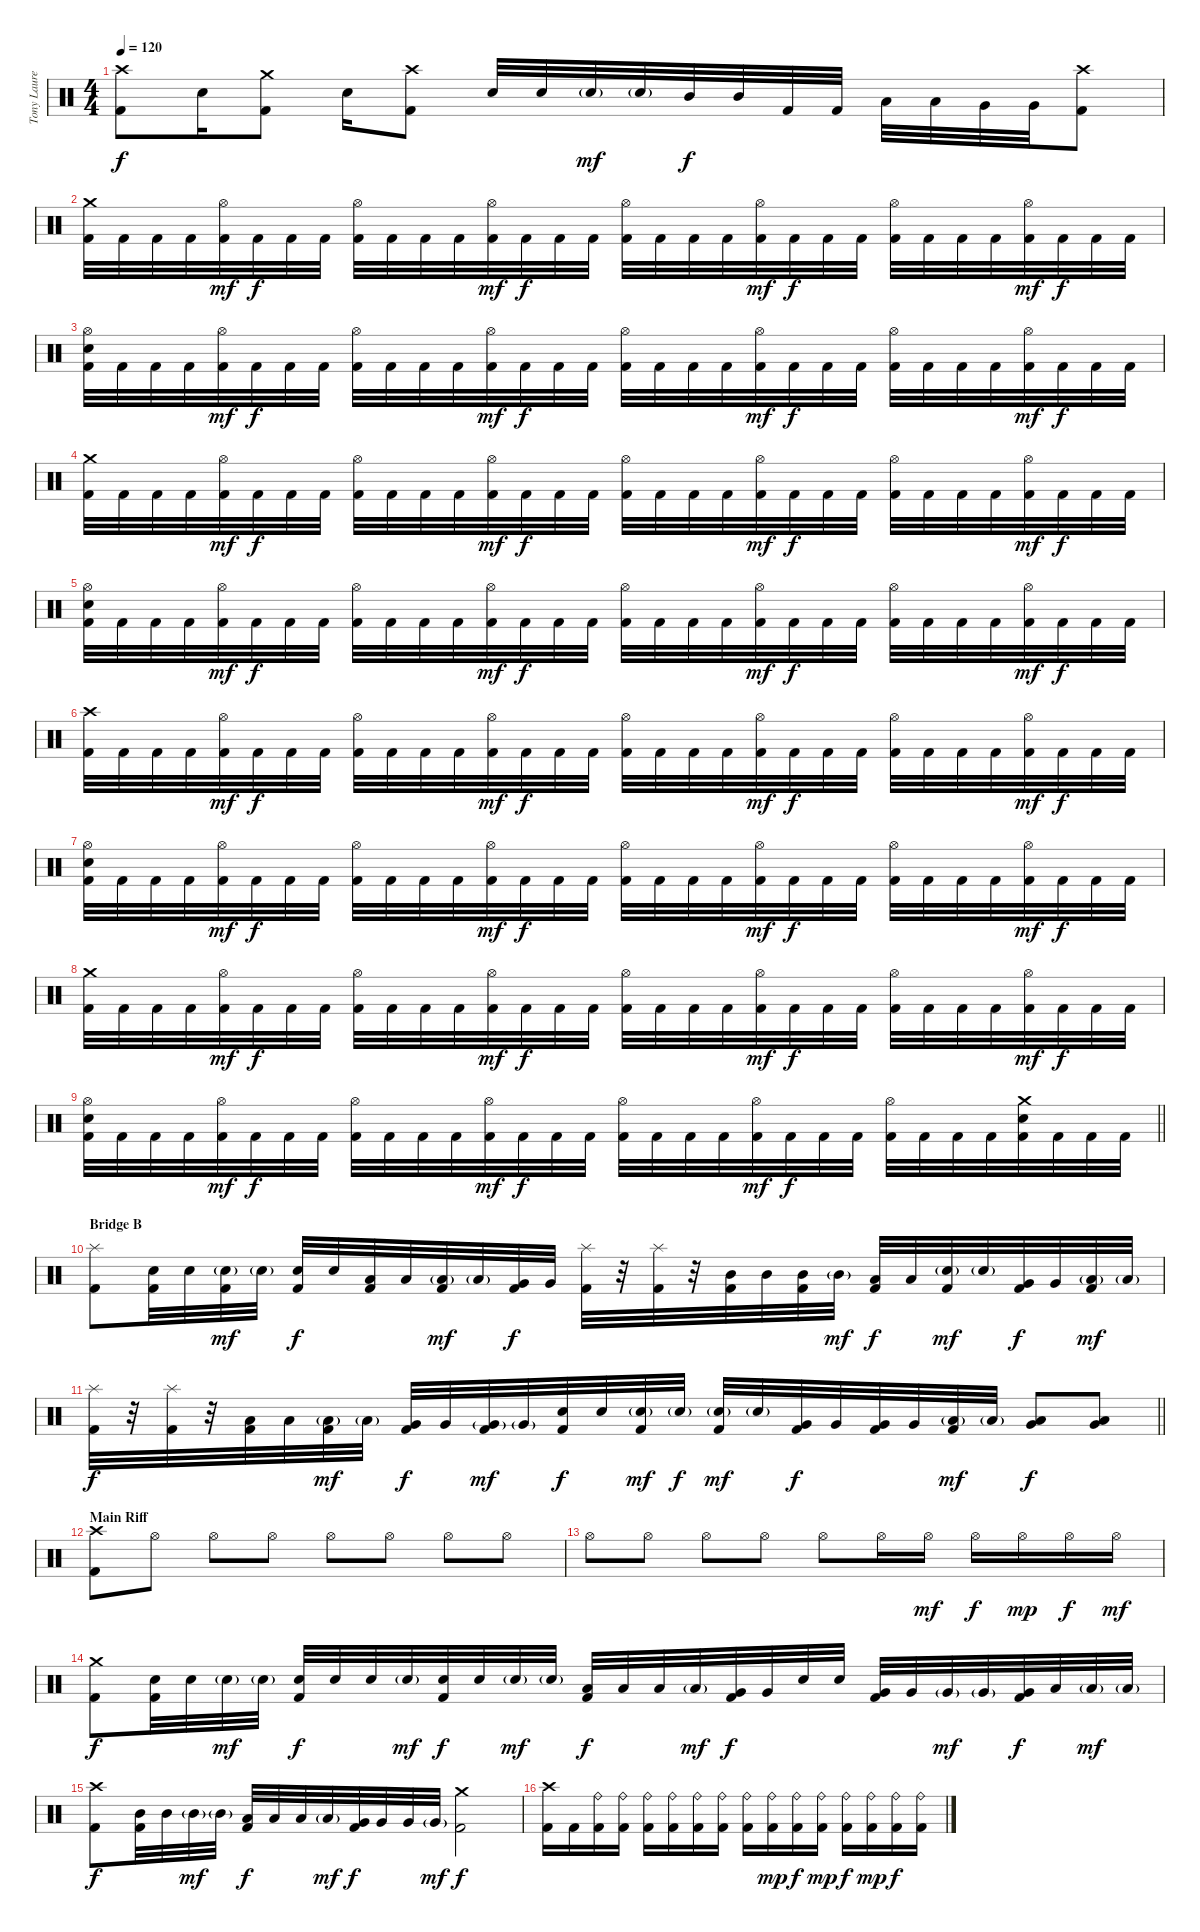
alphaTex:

\track ("Tony Laureano" "Tony Laure") {instrument percussion}
\staff {score}
\articulation defaults
\ts (4 4)
\tempo 120
\clef neutral
\ks c
("Crash high (hit)" "Kick (hit) 2").8{dy f} "Electric Snare (hit)".16 ("Crash medium (hit)" "Kick (hit) 2").8 "Electric Snare (hit)".16 ("Crash high (hit)" "Kick (hit) 2").8 "Electric Snare (hit)".32 "Electric Snare (hit)".32 "Electric Snare (hit)"{g}.32{dy mf} "Electric Snare (hit)"{g}.32 "Mid Tom (hit)".32{dy f} "Mid Tom (hit)".32 "Kick (hit) 2".32 "Kick (hit) 2".32 "Low Tom (hit)".32 "Low Tom (hit)".32 "Very Low Tom (hit)".32 "Very Low Tom (hit)".32 ("Crash high (hit)" "Kick (hit) 2").8 |
("Crash medium (hit)" "Kick (hit) 2").32 "Kick (hit) 2".32 "Kick (hit) 2".32 "Kick (hit) 2".32 ("Hi-Hat (open)" "Kick (hit) 2").32{dy mf} "Kick (hit) 2".32{dy f} "Kick (hit) 2".32 "Kick (hit) 2".32 ("Hi-Hat (open)" "Kick (hit) 2").32 "Kick (hit) 2".32 "Kick (hit) 2".32 "Kick (hit) 2".32 ("Hi-Hat (open)" "Kick (hit) 2").32{dy mf} "Kick (hit) 2".32{dy f} "Kick (hit) 2".32 "Kick (hit) 2".32 ("Hi-Hat (open)" "Kick (hit) 2").32 "Kick (hit) 2".32 "Kick (hit) 2".32 "Kick (hit) 2".32 ("Hi-Hat (open)" "Kick (hit) 2").32{dy mf} "Kick (hit) 2".32{dy f} "Kick (hit) 2".32 "Kick (hit) 2".32 ("Hi-Hat (open)" "Kick (hit) 2").32 "Kick (hit) 2".32 "Kick (hit) 2".32 "Kick (hit) 2".32 ("Hi-Hat (open)" "Kick (hit) 2").32{dy mf} "Kick (hit) 2".32{dy f} "Kick (hit) 2".32 "Kick (hit) 2".32 |
("Hi-Hat (open)" "Electric Snare (hit)" "Kick (hit) 2").32 "Kick (hit) 2".32 "Kick (hit) 2".32 "Kick (hit) 2".32 ("Hi-Hat (open)" "Kick (hit) 2").32{dy mf} "Kick (hit) 2".32{dy f} "Kick (hit) 2".32 "Kick (hit) 2".32 ("Hi-Hat (open)" "Kick (hit) 2").32 "Kick (hit) 2".32 "Kick (hit) 2".32 "Kick (hit) 2".32 ("Hi-Hat (open)" "Kick (hit) 2").32{dy mf} "Kick (hit) 2".32{dy f} "Kick (hit) 2".32 "Kick (hit) 2".32 ("Hi-Hat (open)" "Kick (hit) 2").32 "Kick (hit) 2".32 "Kick (hit) 2".32 "Kick (hit) 2".32 ("Hi-Hat (open)" "Kick (hit) 2").32{dy mf} "Kick (hit) 2".32{dy f} "Kick (hit) 2".32 "Kick (hit) 2".32 ("Hi-Hat (open)" "Kick (hit) 2").32 "Kick (hit) 2".32 "Kick (hit) 2".32 "Kick (hit) 2".32 ("Hi-Hat (open)" "Kick (hit) 2").32{dy mf} "Kick (hit) 2".32{dy f} "Kick (hit) 2".32 "Kick (hit) 2".32 |
("Crash medium (hit)" "Kick (hit) 2").32 "Kick (hit) 2".32 "Kick (hit) 2".32 "Kick (hit) 2".32 ("Hi-Hat (open)" "Kick (hit) 2").32{dy mf} "Kick (hit) 2".32{dy f} "Kick (hit) 2".32 "Kick (hit) 2".32 ("Hi-Hat (open)" "Kick (hit) 2").32 "Kick (hit) 2".32 "Kick (hit) 2".32 "Kick (hit) 2".32 ("Hi-Hat (open)" "Kick (hit) 2").32{dy mf} "Kick (hit) 2".32{dy f} "Kick (hit) 2".32 "Kick (hit) 2".32 ("Hi-Hat (open)" "Kick (hit) 2").32 "Kick (hit) 2".32 "Kick (hit) 2".32 "Kick (hit) 2".32 ("Hi-Hat (open)" "Kick (hit) 2").32{dy mf} "Kick (hit) 2".32{dy f} "Kick (hit) 2".32 "Kick (hit) 2".32 ("Hi-Hat (open)" "Kick (hit) 2").32 "Kick (hit) 2".32 "Kick (hit) 2".32 "Kick (hit) 2".32 ("Hi-Hat (open)" "Kick (hit) 2").32{dy mf} "Kick (hit) 2".32{dy f} "Kick (hit) 2".32 "Kick (hit) 2".32 |
("Hi-Hat (open)" "Electric Snare (hit)" "Kick (hit) 2").32 "Kick (hit) 2".32 "Kick (hit) 2".32 "Kick (hit) 2".32 ("Hi-Hat (open)" "Kick (hit) 2").32{dy mf} "Kick (hit) 2".32{dy f} "Kick (hit) 2".32 "Kick (hit) 2".32 ("Hi-Hat (open)" "Kick (hit) 2").32 "Kick (hit) 2".32 "Kick (hit) 2".32 "Kick (hit) 2".32 ("Hi-Hat (open)" "Kick (hit) 2").32{dy mf} "Kick (hit) 2".32{dy f} "Kick (hit) 2".32 "Kick (hit) 2".32 ("Hi-Hat (open)" "Kick (hit) 2").32 "Kick (hit) 2".32 "Kick (hit) 2".32 "Kick (hit) 2".32 ("Hi-Hat (open)" "Kick (hit) 2").32{dy mf} "Kick (hit) 2".32{dy f} "Kick (hit) 2".32 "Kick (hit) 2".32 ("Hi-Hat (open)" "Kick (hit) 2").32 "Kick (hit) 2".32 "Kick (hit) 2".32 "Kick (hit) 2".32 ("Hi-Hat (open)" "Kick (hit) 2").32{dy mf} "Kick (hit) 2".32{dy f} "Kick (hit) 2".32 "Kick (hit) 2".32 |
("Crash high (hit)" "Kick (hit) 2").32 "Kick (hit) 2".32 "Kick (hit) 2".32 "Kick (hit) 2".32 ("Hi-Hat (open)" "Kick (hit) 2").32{dy mf} "Kick (hit) 2".32{dy f} "Kick (hit) 2".32 "Kick (hit) 2".32 ("Hi-Hat (open)" "Kick (hit) 2").32 "Kick (hit) 2".32 "Kick (hit) 2".32 "Kick (hit) 2".32 ("Hi-Hat (open)" "Kick (hit) 2").32{dy mf} "Kick (hit) 2".32{dy f} "Kick (hit) 2".32 "Kick (hit) 2".32 ("Hi-Hat (open)" "Kick (hit) 2").32 "Kick (hit) 2".32 "Kick (hit) 2".32 "Kick (hit) 2".32 ("Hi-Hat (open)" "Kick (hit) 2").32{dy mf} "Kick (hit) 2".32{dy f} "Kick (hit) 2".32 "Kick (hit) 2".32 ("Hi-Hat (open)" "Kick (hit) 2").32 "Kick (hit) 2".32 "Kick (hit) 2".32 "Kick (hit) 2".32 ("Hi-Hat (open)" "Kick (hit) 2").32{dy mf} "Kick (hit) 2".32{dy f} "Kick (hit) 2".32 "Kick (hit) 2".32 |
("Hi-Hat (open)" "Electric Snare (hit)" "Kick (hit) 2").32 "Kick (hit) 2".32 "Kick (hit) 2".32 "Kick (hit) 2".32 ("Hi-Hat (open)" "Kick (hit) 2").32{dy mf} "Kick (hit) 2".32{dy f} "Kick (hit) 2".32 "Kick (hit) 2".32 ("Hi-Hat (open)" "Kick (hit) 2").32 "Kick (hit) 2".32 "Kick (hit) 2".32 "Kick (hit) 2".32 ("Hi-Hat (open)" "Kick (hit) 2").32{dy mf} "Kick (hit) 2".32{dy f} "Kick (hit) 2".32 "Kick (hit) 2".32 ("Hi-Hat (open)" "Kick (hit) 2").32 "Kick (hit) 2".32 "Kick (hit) 2".32 "Kick (hit) 2".32 ("Hi-Hat (open)" "Kick (hit) 2").32{dy mf} "Kick (hit) 2".32{dy f} "Kick (hit) 2".32 "Kick (hit) 2".32 ("Hi-Hat (open)" "Kick (hit) 2").32 "Kick (hit) 2".32 "Kick (hit) 2".32 "Kick (hit) 2".32 ("Hi-Hat (open)" "Kick (hit) 2").32{dy mf} "Kick (hit) 2".32{dy f} "Kick (hit) 2".32 "Kick (hit) 2".32 |
("Crash medium (hit)" "Kick (hit) 2").32 "Kick (hit) 2".32 "Kick (hit) 2".32 "Kick (hit) 2".32 ("Hi-Hat (open)" "Kick (hit) 2").32{dy mf} "Kick (hit) 2".32{dy f} "Kick (hit) 2".32 "Kick (hit) 2".32 ("Hi-Hat (open)" "Kick (hit) 2").32 "Kick (hit) 2".32 "Kick (hit) 2".32 "Kick (hit) 2".32 ("Hi-Hat (open)" "Kick (hit) 2").32{dy mf} "Kick (hit) 2".32{dy f} "Kick (hit) 2".32 "Kick (hit) 2".32 ("Hi-Hat (open)" "Kick (hit) 2").32 "Kick (hit) 2".32 "Kick (hit) 2".32 "Kick (hit) 2".32 ("Hi-Hat (open)" "Kick (hit) 2").32{dy mf} "Kick (hit) 2".32{dy f} "Kick (hit) 2".32 "Kick (hit) 2".32 ("Hi-Hat (open)" "Kick (hit) 2").32 "Kick (hit) 2".32 "Kick (hit) 2".32 "Kick (hit) 2".32 ("Hi-Hat (open)" "Kick (hit) 2").32{dy mf} "Kick (hit) 2".32{dy f} "Kick (hit) 2".32 "Kick (hit) 2".32 |
\barLineRight lightlight
("Hi-Hat (open)" "Electric Snare (hit)" "Kick (hit) 2").32 "Kick (hit) 2".32 "Kick (hit) 2".32 "Kick (hit) 2".32 ("Hi-Hat (open)" "Kick (hit) 2").32{dy mf} "Kick (hit) 2".32{dy f} "Kick (hit) 2".32 "Kick (hit) 2".32 ("Hi-Hat (open)" "Kick (hit) 2").32 "Kick (hit) 2".32 "Kick (hit) 2".32 "Kick (hit) 2".32 ("Hi-Hat (open)" "Kick (hit) 2").32{dy mf} "Kick (hit) 2".32{dy f} "Kick (hit) 2".32 "Kick (hit) 2".32 ("Hi-Hat (open)" "Kick (hit) 2").32 "Kick (hit) 2".32 "Kick (hit) 2".32 "Kick (hit) 2".32 ("Hi-Hat (open)" "Kick (hit) 2").32{dy mf} "Kick (hit) 2".32{dy f} "Kick (hit) 2".32 "Kick (hit) 2".32 ("Hi-Hat (open)" "Kick (hit) 2").32 "Kick (hit) 2".32 "Kick (hit) 2".32 "Kick (hit) 2".32 ("Crash medium (hit)" "Electric Snare (hit)" "Kick (hit) 2").32 "Kick (hit) 2".32 "Kick (hit) 2".32 "Kick (hit) 2".32 |
\section ("" "Bridge B")
("Splash (hit)" "Kick (hit) 2").8 ("Electric Snare (hit)" "Kick (hit) 2").32 "Electric Snare (hit)".32 ("Electric Snare (hit)"{g} "Kick (hit) 2").32{dy mf} "Electric Snare (hit)"{g}.32 ("Electric Snare (hit)" "Kick (hit) 2").32{dy f} "Electric Snare (hit)".32 ("Low Tom (hit)" "Kick (hit) 2").32 "Low Tom (hit)".32 ("Low Tom (hit)"{g} "Kick (hit) 2").32{dy mf} "Low Tom (hit)"{g}.32 ("Very Low Tom (hit)" "Kick (hit) 2").32{dy f} "Very Low Tom (hit)".32 ("Splash (hit)" "Kick (hit) 2").32 r.32 ("Splash (hit)" "Kick (hit) 2").32 r.32 ("Mid Tom (hit)" "Kick (hit) 2").32 "Mid Tom (hit)".32 ("Mid Tom (hit)" "Kick (hit) 2").32 "Mid Tom (hit)"{g}.32{dy mf} ("Low Tom (hit)" "Kick (hit) 2").32{dy f} "Low Tom (hit)".32 ("Electric Snare (hit)"{g} "Kick (hit) 2").32{dy mf} "Electric Snare (hit)"{g}.32 ("Very Low Tom (hit)" "Kick (hit) 2").32{dy f} "Very Low Tom (hit)".32 ("Low Floor Tom (hit)"{g} "Kick (hit) 2").32{dy mf} "Low Floor Tom (hit)"{g}.32 |
\barLineRight lightlight
("Splash (hit)" "Kick (hit) 2").32{dy f} r.32 ("Splash (hit)" "Kick (hit) 2").32 r.32 ("Low Tom (hit)" "Kick (hit) 2").32 "Low Tom (hit)".32 ("Low Tom (hit)"{g} "Kick (hit) 2").32{dy mf} "Low Tom (hit)"{g}.32 ("Very Low Tom (hit)" "Kick (hit) 2").32{dy f} "Very Low Tom (hit)".32 ("Very Low Tom (hit)"{g} "Kick (hit) 2").32{dy mf} "Very Low Tom (hit)"{g}.32 ("Electric Snare (hit)" "Kick (hit) 2").32{dy f} "Electric Snare (hit)".32 ("Electric Snare (hit)"{g} "Kick (hit) 2").32{dy mf} "Electric Snare (hit)"{g}.32{dy f} ("Electric Snare (hit)"{g} "Kick (hit) 2").32{dy mf} "Electric Snare (hit)"{g}.32 ("Very Low Tom (hit)" "Kick (hit) 2").32{dy f} "Very Low Tom (hit)".32 ("Very Low Tom (hit)" "Kick (hit) 2").32 "Very Low Tom (hit)".32 ("Low Floor Tom (hit)"{g} "Kick (hit) 2").32{dy mf} "Low Floor Tom (hit)"{g}.32 ("Low Tom (hit)" "Very Low Tom (hit)").8{dy f} ("Very Low Tom (hit)" "Low Floor Tom (hit)").8 |
\section ("" "Main Riff")
("Crash high (hit)" "Kick (hit) 2").8 "Hi-Hat (open)".8 "Hi-Hat (open)".8 "Hi-Hat (open)".8 "Hi-Hat (open)".8 "Hi-Hat (open)".8 "Hi-Hat (open)".8 "Hi-Hat (open)".8 |
"Hi-Hat (open)".8 "Hi-Hat (open)".8 "Hi-Hat (open)".8 "Hi-Hat (open)".8 "Hi-Hat (open)".8 "Hi-Hat (open)".16 "Hi-Hat (open)".16{dy mf} "Hi-Hat (open)".16{dy f} "Hi-Hat (open)".16{dy mp} "Hi-Hat (open)".16{dy f} "Hi-Hat (open)".16{dy mf} |
("Crash medium (hit)" "Kick (hit) 2").8{dy f} ("Electric Snare (hit)" "Kick (hit) 2").32 "Electric Snare (hit)".32 "Electric Snare (hit)"{g}.32{dy mf} "Electric Snare (hit)"{g}.32 ("Electric Snare (hit)" "Kick (hit) 2").32{dy f} "Electric Snare (hit)".32 "Electric Snare (hit)".32 "Electric Snare (hit)"{g}.32{dy mf} ("Electric Snare (hit)" "Kick (hit) 2").32{dy f} "Electric Snare (hit)".32 "Electric Snare (hit)"{g}.32{dy mf} "Electric Snare (hit)"{g}.32 ("Low Tom (hit)" "Kick (hit) 2").32{dy f} "Low Tom (hit)".32 "Low Tom (hit)".32 "Low Tom (hit)"{g}.32{dy mf} ("Very Low Tom (hit)" "Kick (hit) 2").32{dy f} "Very Low Tom (hit)".32 "Electric Snare (hit)".32 "Electric Snare (hit)".32 ("Very Low Tom (hit)" "Kick (hit) 2").32 "Very Low Tom (hit)".32 "Very Low Tom (hit)"{g}.32{dy mf} "Very Low Tom (hit)"{g}.32 ("Very Low Tom (hit)" "Kick (hit) 2").32{dy f} "Low Floor Tom (hit)".32 "Low Floor Tom (hit)"{g}.32{dy mf} "Low Floor Tom (hit)"{g}.32 |
("Crash high (hit)" "Kick (hit) 2").8{dy f} ("Mid Tom (hit)" "Kick (hit) 2").32 "Mid Tom (hit)".32 "Mid Tom (hit)"{g}.32{dy mf} "Mid Tom (hit)"{g}.32 ("Low Tom (hit)" "Kick (hit) 2").32{dy f} "Low Tom (hit)".32 "Low Tom (hit)".32 "Low Tom (hit)"{g}.32{dy mf} ("Very Low Tom (hit)" "Kick (hit) 2").32{dy f} "Very Low Tom (hit)".32 "Very Low Tom (hit)".32 "Very Low Tom (hit)"{g}.32{dy mf} ("Crash medium (hit)" "Kick (hit) 2").2{dy f} |
("Crash high (hit)" "Kick (hit) 2").16 "Kick (hit) 2".16 ("Ride (bell)" "Kick (hit) 2").16 ("Ride (bell)" "Kick (hit) 2").16 ("Ride (bell)" "Kick (hit) 2").16 ("Ride (bell)" "Kick (hit) 2").16 ("Ride (bell)" "Kick (hit) 2").16 ("Ride (bell)" "Kick (hit) 2").16 ("Ride (bell)" "Kick (hit) 2").16 ("Ride (bell)" "Kick (hit) 2").16{dy mp} ("Ride (bell)" "Kick (hit) 2").16{dy f} ("Ride (bell)" "Kick (hit) 2").16{dy mp} ("Ride (bell)" "Kick (hit) 2").16{dy f} ("Ride (bell)" "Kick (hit) 2").16{dy mp} ("Ride (bell)" "Kick (hit) 2").16{dy f} ("Ride (bell)" "Kick (hit) 2").16
